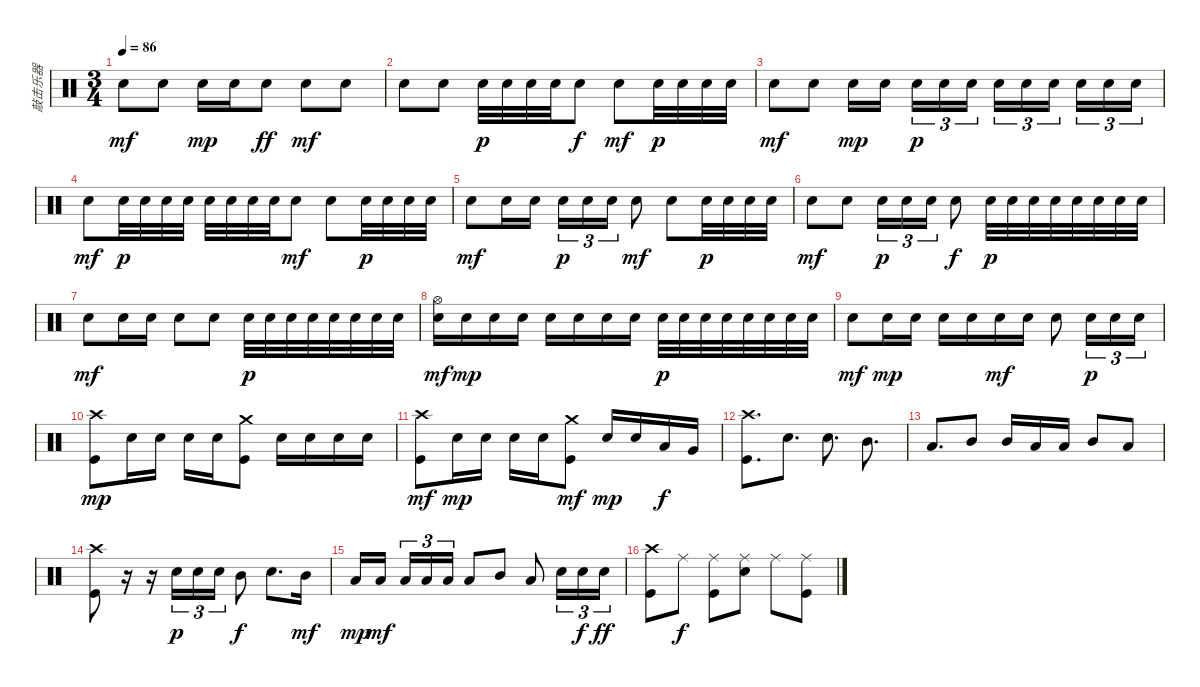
\track ("敲击乐器" "敲击乐器") {instrument percussion}
\staff {score}
\articulation defaults
\ts (3 4)
\tempo 86
\clef neutral
\ks c "Snare (hit) 2".8{dy mf} "Snare (hit) 2".8 "Snare (hit) 2".16{dy mp} "Snare (hit) 2".16 "Snare (hit) 2".8{dy ff} "Snare (hit) 2".8{dy mf} "Snare (hit) 2".8
|
"Snare (hit) 2".8 "Snare (hit) 2".8 "Snare (hit) 2".32{dy p} "Snare (hit) 2".32 "Snare (hit) 2".32 "Snare (hit) 2".32 "Snare (hit) 2".8{dy f} "Snare (hit) 2".8{dy mf} "Snare (hit) 2".32{dy p} "Snare (hit) 2".32 "Snare (hit) 2".32 "Snare (hit) 2".32 |
"Snare (hit) 2".8{dy mf} "Snare (hit) 2".8 "Snare (hit) 2".16{dy mp} "Snare (hit) 2".16{beam splitsecondary} "Snare (hit) 2".16{tu (3 2) dy p} "Snare (hit) 2".16{tu (3 2)} "Snare (hit) 2".16{tu (3 2)} "Snare (hit) 2".16{tu (3 2)} "Snare (hit) 2".16{tu (3 2)} "Snare (hit) 2".16{tu (3 2) beam splitsecondary} "Snare (hit) 2".16{tu (3 2)} "Snare (hit) 2".16{tu (3 2)} "Snare (hit) 2".16{tu (3 2)} |
"Snare (hit) 2".8{dy mf} "Snare (hit) 2".32{dy p} "Snare (hit) 2".32 "Snare (hit) 2".32 "Snare (hit) 2".32 "Snare (hit) 2".32 "Snare (hit) 2".32 "Snare (hit) 2".32 "Snare (hit) 2".32 "Snare (hit) 2".8{dy mf} "Snare (hit) 2".8 "Snare (hit) 2".32{dy p} "Snare (hit) 2".32 "Snare (hit) 2".32 "Snare (hit) 2".32 |
"Snare (hit) 2".8{dy mf} "Snare (hit) 2".16 "Snare (hit) 2".16 "Snare (hit) 2".16{tu (3 2) dy p} "Snare (hit) 2".16{tu (3 2)} "Snare (hit) 2".16{tu (3 2)} "Snare (hit) 2".8{dy mf} "Snare (hit) 2".8 "Snare (hit) 2".32{dy p} "Snare (hit) 2".32 "Snare (hit) 2".32 "Snare (hit) 2".32 |
"Snare (hit) 2".8{dy mf} "Snare (hit) 2".8 "Snare (hit) 2".16{tu (3 2) dy p} "Snare (hit) 2".16{tu (3 2)} "Snare (hit) 2".16{tu (3 2)} "Snare (hit) 2".8{dy f} "Snare (hit) 2".32{dy p} "Snare (hit) 2".32 "Snare (hit) 2".32 "Snare (hit) 2".32 "Snare (hit) 2".32 "Snare (hit) 2".32 "Snare (hit) 2".32 "Snare (hit) 2".32 |
"Snare (hit) 2".8{dy mf} "Snare (hit) 2".16 "Snare (hit) 2".16 "Snare (hit) 2".8 "Snare (hit) 2".8 "Snare (hit) 2".32{dy p} "Snare (hit) 2".32 "Snare (hit) 2".32 "Snare (hit) 2".32 "Snare (hit) 2".32 "Snare (hit) 2".32 "Snare (hit) 2".32 "Snare (hit) 2".32 |
("Hi-Hat (open)" "Snare (hit) 2").16{dy mf} "Snare (hit) 2".16{dy mp} "Snare (hit) 2".16 "Snare (hit) 2".16 "Snare (hit) 2".16 "Snare (hit) 2".16 "Snare (hit) 2".16 "Snare (hit) 2".16 "Snare (hit) 2".32{dy p} "Snare (hit) 2".32 "Snare (hit) 2".32 "Snare (hit) 2".32 "Snare (hit) 2".32 "Snare (hit) 2".32 "Snare (hit) 2".32 "Snare (hit) 2".32 |
"Snare (hit) 2".8{dy mf} "Snare (hit) 2".16{dy mp} "Snare (hit) 2".16 "Snare (hit) 2".16 "Snare (hit) 2".16 "Snare (hit) 2".16{dy mf} "Snare (hit) 2".16 "Snare (hit) 2".8 "Snare (hit) 2".16{tu (3 2) dy p} "Snare (hit) 2".16{tu (3 2)} "Snare (hit) 2".16{tu (3 2)} |
("Crash high (hit)" "Kick (hit)").8{dy mp} "Snare (hit) 2".16 "Snare (hit) 2".16 "Snare (hit) 2".16 "Snare (hit) 2".16 ("Crash medium (hit)" "Kick (hit)").8 "Snare (hit) 2".16 "Snare (hit) 2".16 "Snare (hit) 2".16 "Snare (hit) 2".16 |
("Crash high (hit)" "Kick (hit)").8{dy mf} "Snare (hit) 2".16{dy mp} "Snare (hit) 2".16 "Snare (hit) 2".16 "Snare (hit) 2".16 ("Crash medium (hit)" "Kick (hit)").8{dy mf} "Snare (hit) 2".16{dy mp} "Snare (hit) 2".16 "Low Tom (hit)".16{dy f} "Very Low Tom (hit)".16 |
("Crash high (hit)" "Kick (hit)").8{d} "Snare (hit) 2".8{d} "Snare (hit) 2".8{d} "Mid Tom (hit)".8{d} |
"Low Tom (hit)".8{d} "Mid Tom (hit)".8 "Mid Tom (hit)".16 "Low Tom (hit)".16 "Low Tom (hit)".16 "Mid Tom (hit)".8 "Low Floor Tom (hit)".8 |
("Crash high (hit)" "Kick (hit)").8 r.16 r.16 "Snare (hit) 2".16{tu (3 2) dy p} "Snare (hit) 2".16{tu (3 2)} "Snare (hit) 2".16{tu (3 2)} "Mid Tom (hit)".8{dy f} "Snare (hit) 2".8{d} "Mid Tom (hit)".16{dy mf} |
"Low Tom (hit)".16{dy mp} "Low Floor Tom (hit)".16{dy mf beam splitsecondary} "Low Tom (hit)".16{tu (3 2)} "Low Tom (hit)".16{tu (3 2)} "Low Tom (hit)".16{tu (3 2)} "Low Floor Tom (hit)".8 "Mid Tom (hit)".8 "Low Floor Tom (hit)".8 "Snare (hit) 2".16{tu (3 2)} "Snare (hit) 2".16{tu (3 2) dy f} "Snare (hit) 2".16{tu (3 2) dy ff} |
("Crash high (hit)" "Kick (hit)").8 "Ride (middle)".8{dy f} ("Ride (middle)" "Kick (hit)").8 ("Ride (middle)" "Snare (hit) 2").8 "Ride (middle)".8 ("Ride (middle)" "Kick (hit)").8
